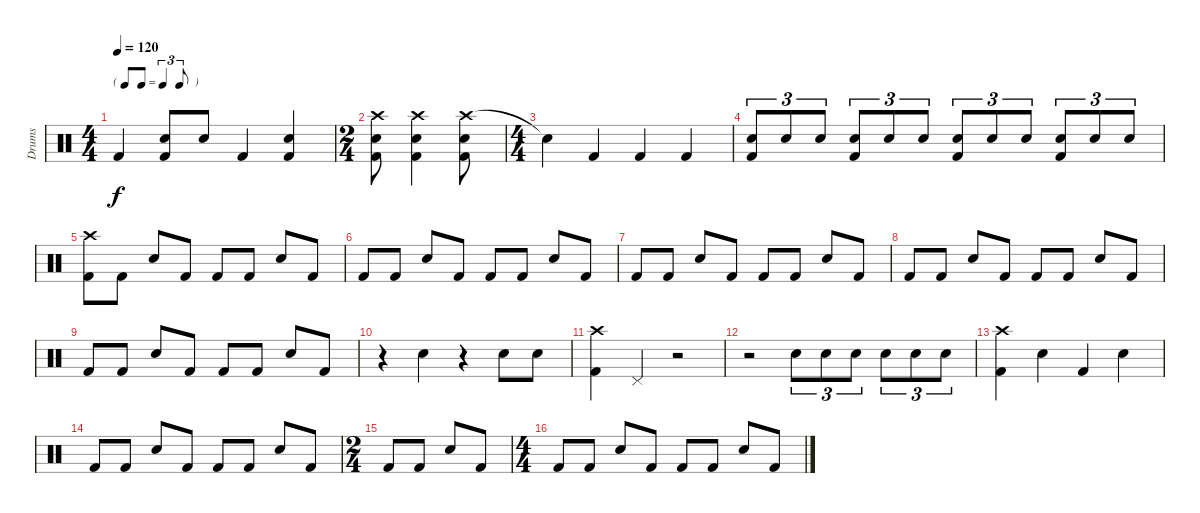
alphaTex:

\track ("Drums" "Drums") {instrument percussion}
\staff {score}
\articulation defaults
\ts (4 4)
\tf triplet8th
\tempo 120
\clef neutral
\ks c "Kick (hit) 2".4{dy f}
("Snare (hit) 2" "Kick (hit) 2").8 "Snare (hit) 2".8 "Kick (hit) 2".4 ("Snare (hit) 2" "Kick (hit) 2").4 |
\ts (2 4)
("Crash high (hit)" "Snare (hit) 2" "Kick (hit) 2").8 ("Crash high (hit)" "Snare (hit) 2" "Kick (hit) 2").4 ("Crash high (hit)" "Snare (hit) 2" "Kick (hit) 2").8 |
\ts (4 4)
"Snare (hit)"{t}.4 "Kick (hit) 2".4 "Kick (hit) 2".4 "Kick (hit) 2".4 |
("Snare (hit) 2" "Kick (hit) 2").8{tu (3 2)} "Snare (hit) 2".8{tu (3 2)} "Snare (hit) 2".8{tu (3 2)} ("Snare (hit) 2" "Kick (hit) 2").8{tu (3 2)} "Snare (hit) 2".8{tu (3 2)} "Snare (hit) 2".8{tu (3 2)} ("Snare (hit) 2" "Kick (hit) 2").8{tu (3 2)} "Snare (hit) 2".8{tu (3 2)} "Snare (hit) 2".8{tu (3 2)} ("Snare (hit) 2" "Kick (hit) 2").8{tu (3 2)} "Snare (hit) 2".8{tu (3 2)} "Snare (hit) 2".8{tu (3 2)} |
("Crash high (hit)" "Kick (hit) 2").8 "Kick (hit) 2".8 "Snare (hit) 2".8 "Kick (hit) 2".8 "Kick (hit) 2".8 "Kick (hit) 2".8 "Snare (hit) 2".8 "Kick (hit) 2".8 |
"Kick (hit) 2".8 "Kick (hit) 2".8 "Snare (hit) 2".8 "Kick (hit) 2".8 "Kick (hit) 2".8 "Kick (hit) 2".8 "Snare (hit) 2".8 "Kick (hit) 2".8 |
"Kick (hit) 2".8 "Kick (hit) 2".8 "Snare (hit) 2".8 "Kick (hit) 2".8 "Kick (hit) 2".8 "Kick (hit) 2".8 "Snare (hit) 2".8 "Kick (hit) 2".8 |
"Kick (hit) 2".8 "Kick (hit) 2".8 "Snare (hit) 2".8 "Kick (hit) 2".8 "Kick (hit) 2".8 "Kick (hit) 2".8 "Snare (hit) 2".8 "Kick (hit) 2".8 |
"Kick (hit) 2".8 "Kick (hit) 2".8 "Snare (hit) 2".8 "Kick (hit) 2".8 "Kick (hit) 2".8 "Kick (hit) 2".8 "Snare (hit) 2".8 "Kick (hit) 2".8 |
r.4 "Snare (hit) 2".4 r.4 "Snare (hit) 2".8 "Snare (hit) 2".8 |
("Crash high (hit)" "Kick (hit) 2").4 "Pedal Hi-Hat (hit)".4 r.2 |
r.2 "Snare (hit) 2".8{tu (3 2)} "Snare (hit) 2".8{tu (3 2)} "Snare (hit) 2".8{tu (3 2)} "Snare (hit) 2".8{tu (3 2)} "Snare (hit) 2".8{tu (3 2)} "Snare (hit) 2".8{tu (3 2)} |
("Crash high (hit)" "Kick (hit) 2").4 "Snare (hit) 2".4 "Kick (hit) 2".4 "Snare (hit) 2".4 |
"Kick (hit) 2".8 "Kick (hit) 2".8 "Snare (hit) 2".8 "Kick (hit) 2".8 "Kick (hit) 2".8 "Kick (hit) 2".8 "Snare (hit) 2".8 "Kick (hit) 2".8 |
\ts (2 4)
"Kick (hit) 2".8 "Kick (hit) 2".8 "Snare (hit) 2".8 "Kick (hit) 2".8 |
\ts (4 4)
"Kick (hit) 2".8 "Kick (hit) 2".8 "Snare (hit) 2".8 "Kick (hit) 2".8 "Kick (hit) 2".8 "Kick (hit) 2".8 "Snare (hit) 2".8 "Kick (hit) 2".8
